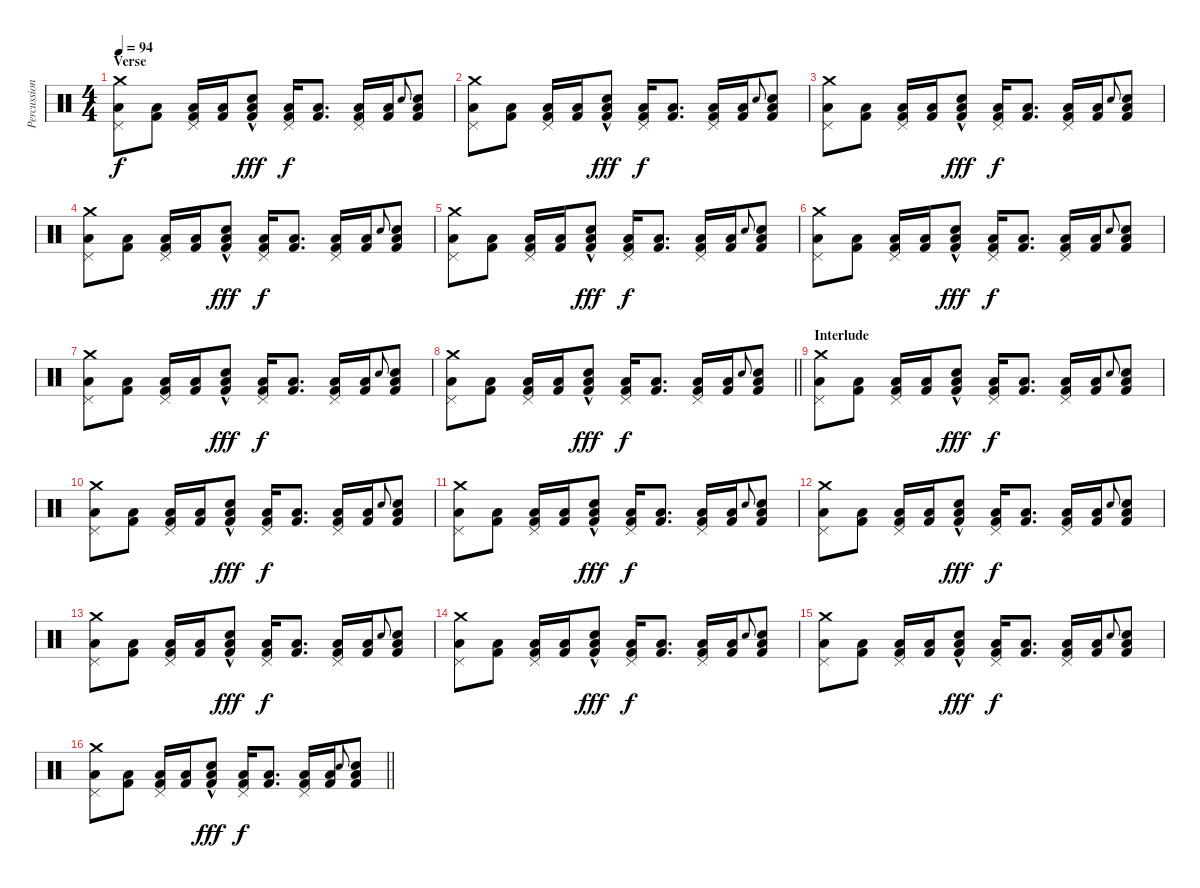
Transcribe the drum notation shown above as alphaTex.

\track ("Percussion" "Percussion") {instrument percussion}
\staff {score}
\articulation defaults
\ts (4 4)
\section ("" "Verse")
\tempo 94
\clef neutral
\ks c
("Crash medium (hit)" "Pedal Hi-Hat (hit)" "Low Floor Tom (hit)").8{dy f} ("Kick (hit) 2" "Low Floor Tom (hit)").8 ("Kick (hit) 2" "Pedal Hi-Hat (hit)" "Low Floor Tom (hit)").16 ("Kick (hit) 2" "Low Floor Tom (hit)").16 ("Snare (hit) 2"{hac} "Kick (hit) 2" "Low Floor Tom (hit)").8{dy fff} ("Kick (hit) 2" "Pedal Hi-Hat (hit)" "Low Floor Tom (hit)").16{dy f} ("Kick (hit) 2" "Low Floor Tom (hit)").8{d} ("Kick (hit) 2" "Pedal Hi-Hat (hit)" "Low Floor Tom (hit)").16 ("Kick (hit) 2" "Low Floor Tom (hit)").16 "Snare (hit) 2".8{gr onbeat} ("Snare (hit) 2" "Kick (hit) 2" "Low Floor Tom (hit)").8 |
("Crash medium (hit)" "Pedal Hi-Hat (hit)" "Low Floor Tom (hit)").8 ("Kick (hit) 2" "Low Floor Tom (hit)").8 ("Kick (hit) 2" "Pedal Hi-Hat (hit)" "Low Floor Tom (hit)").16 ("Kick (hit) 2" "Low Floor Tom (hit)").16 ("Snare (hit) 2"{hac} "Kick (hit) 2" "Low Floor Tom (hit)").8{dy fff} ("Kick (hit) 2" "Pedal Hi-Hat (hit)" "Low Floor Tom (hit)").16{dy f} ("Kick (hit) 2" "Low Floor Tom (hit)").8{d} ("Kick (hit) 2" "Pedal Hi-Hat (hit)" "Low Floor Tom (hit)").16 ("Kick (hit) 2" "Low Floor Tom (hit)").16 "Snare (hit) 2".8{gr onbeat} ("Snare (hit) 2" "Kick (hit) 2" "Low Floor Tom (hit)").8 |
("Crash medium (hit)" "Pedal Hi-Hat (hit)" "Low Floor Tom (hit)").8 ("Kick (hit) 2" "Low Floor Tom (hit)").8 ("Kick (hit) 2" "Pedal Hi-Hat (hit)" "Low Floor Tom (hit)").16 ("Kick (hit) 2" "Low Floor Tom (hit)").16 ("Snare (hit) 2"{hac} "Kick (hit) 2" "Low Floor Tom (hit)").8{dy fff} ("Kick (hit) 2" "Pedal Hi-Hat (hit)" "Low Floor Tom (hit)").16{dy f} ("Kick (hit) 2" "Low Floor Tom (hit)").8{d} ("Kick (hit) 2" "Pedal Hi-Hat (hit)" "Low Floor Tom (hit)").16 ("Kick (hit) 2" "Low Floor Tom (hit)").16 "Snare (hit) 2".8{gr onbeat} ("Snare (hit) 2" "Kick (hit) 2" "Low Floor Tom (hit)").8 |
("Crash medium (hit)" "Pedal Hi-Hat (hit)" "Low Floor Tom (hit)").8 ("Kick (hit) 2" "Low Floor Tom (hit)").8 ("Kick (hit) 2" "Pedal Hi-Hat (hit)" "Low Floor Tom (hit)").16 ("Kick (hit) 2" "Low Floor Tom (hit)").16 ("Snare (hit) 2"{hac} "Kick (hit) 2" "Low Floor Tom (hit)").8{dy fff} ("Kick (hit) 2" "Pedal Hi-Hat (hit)" "Low Floor Tom (hit)").16{dy f} ("Kick (hit) 2" "Low Floor Tom (hit)").8{d} ("Kick (hit) 2" "Pedal Hi-Hat (hit)" "Low Floor Tom (hit)").16 ("Kick (hit) 2" "Low Floor Tom (hit)").16 "Snare (hit) 2".8{gr onbeat} ("Snare (hit) 2" "Kick (hit) 2" "Low Floor Tom (hit)").8 |
("Crash medium (hit)" "Pedal Hi-Hat (hit)" "Low Floor Tom (hit)").8 ("Kick (hit) 2" "Low Floor Tom (hit)").8 ("Kick (hit) 2" "Pedal Hi-Hat (hit)" "Low Floor Tom (hit)").16 ("Kick (hit) 2" "Low Floor Tom (hit)").16 ("Snare (hit) 2"{hac} "Kick (hit) 2" "Low Floor Tom (hit)").8{dy fff} ("Kick (hit) 2" "Pedal Hi-Hat (hit)" "Low Floor Tom (hit)").16{dy f} ("Kick (hit) 2" "Low Floor Tom (hit)").8{d} ("Kick (hit) 2" "Pedal Hi-Hat (hit)" "Low Floor Tom (hit)").16 ("Kick (hit) 2" "Low Floor Tom (hit)").16 "Snare (hit) 2".8{gr onbeat} ("Snare (hit) 2" "Kick (hit) 2" "Low Floor Tom (hit)").8 |
("Crash medium (hit)" "Pedal Hi-Hat (hit)" "Low Floor Tom (hit)").8 ("Kick (hit) 2" "Low Floor Tom (hit)").8 ("Kick (hit) 2" "Pedal Hi-Hat (hit)" "Low Floor Tom (hit)").16 ("Kick (hit) 2" "Low Floor Tom (hit)").16 ("Snare (hit) 2"{hac} "Kick (hit) 2" "Low Floor Tom (hit)").8{dy fff} ("Kick (hit) 2" "Pedal Hi-Hat (hit)" "Low Floor Tom (hit)").16{dy f} ("Kick (hit) 2" "Low Floor Tom (hit)").8{d} ("Kick (hit) 2" "Pedal Hi-Hat (hit)" "Low Floor Tom (hit)").16 ("Kick (hit) 2" "Low Floor Tom (hit)").16 "Snare (hit) 2".8{gr onbeat} ("Snare (hit) 2" "Kick (hit) 2" "Low Floor Tom (hit)").8 |
("Crash medium (hit)" "Pedal Hi-Hat (hit)" "Low Floor Tom (hit)").8 ("Kick (hit) 2" "Low Floor Tom (hit)").8 ("Kick (hit) 2" "Pedal Hi-Hat (hit)" "Low Floor Tom (hit)").16 ("Kick (hit) 2" "Low Floor Tom (hit)").16 ("Snare (hit) 2"{hac} "Kick (hit) 2" "Low Floor Tom (hit)").8{dy fff} ("Kick (hit) 2" "Pedal Hi-Hat (hit)" "Low Floor Tom (hit)").16{dy f} ("Kick (hit) 2" "Low Floor Tom (hit)").8{d} ("Kick (hit) 2" "Pedal Hi-Hat (hit)" "Low Floor Tom (hit)").16 ("Kick (hit) 2" "Low Floor Tom (hit)").16 "Snare (hit) 2".8{gr onbeat} ("Snare (hit) 2" "Kick (hit) 2" "Low Floor Tom (hit)").8 |
\barLineRight lightlight
("Crash medium (hit)" "Pedal Hi-Hat (hit)" "Low Floor Tom (hit)").8 ("Kick (hit) 2" "Low Floor Tom (hit)").8 ("Kick (hit) 2" "Pedal Hi-Hat (hit)" "Low Floor Tom (hit)").16 ("Kick (hit) 2" "Low Floor Tom (hit)").16 ("Snare (hit) 2"{hac} "Kick (hit) 2" "Low Floor Tom (hit)").8{dy fff} ("Kick (hit) 2" "Pedal Hi-Hat (hit)" "Low Floor Tom (hit)").16{dy f} ("Kick (hit) 2" "Low Floor Tom (hit)").8{d} ("Kick (hit) 2" "Pedal Hi-Hat (hit)" "Low Floor Tom (hit)").16 ("Kick (hit) 2" "Low Floor Tom (hit)").16 "Snare (hit) 2".8{gr onbeat} ("Snare (hit) 2" "Kick (hit) 2" "Low Floor Tom (hit)").8 |
\section ("" "Interlude")
("Crash medium (hit)" "Pedal Hi-Hat (hit)" "Low Floor Tom (hit)").8 ("Kick (hit) 2" "Low Floor Tom (hit)").8 ("Kick (hit) 2" "Pedal Hi-Hat (hit)" "Low Floor Tom (hit)").16 ("Kick (hit) 2" "Low Floor Tom (hit)").16 ("Snare (hit) 2"{hac} "Kick (hit) 2" "Low Floor Tom (hit)").8{dy fff} ("Kick (hit) 2" "Pedal Hi-Hat (hit)" "Low Floor Tom (hit)").16{dy f} ("Kick (hit) 2" "Low Floor Tom (hit)").8{d} ("Kick (hit) 2" "Pedal Hi-Hat (hit)" "Low Floor Tom (hit)").16 ("Kick (hit) 2" "Low Floor Tom (hit)").16 "Snare (hit) 2".8{gr onbeat} ("Snare (hit) 2" "Kick (hit) 2" "Low Floor Tom (hit)").8 |
("Crash medium (hit)" "Pedal Hi-Hat (hit)" "Low Floor Tom (hit)").8 ("Kick (hit) 2" "Low Floor Tom (hit)").8 ("Kick (hit) 2" "Pedal Hi-Hat (hit)" "Low Floor Tom (hit)").16 ("Kick (hit) 2" "Low Floor Tom (hit)").16 ("Snare (hit) 2"{hac} "Kick (hit) 2" "Low Floor Tom (hit)").8{dy fff} ("Kick (hit) 2" "Pedal Hi-Hat (hit)" "Low Floor Tom (hit)").16{dy f} ("Kick (hit) 2" "Low Floor Tom (hit)").8{d} ("Kick (hit) 2" "Pedal Hi-Hat (hit)" "Low Floor Tom (hit)").16 ("Kick (hit) 2" "Low Floor Tom (hit)").16 "Snare (hit) 2".8{gr onbeat} ("Snare (hit) 2" "Kick (hit) 2" "Low Floor Tom (hit)").8 |
("Crash medium (hit)" "Pedal Hi-Hat (hit)" "Low Floor Tom (hit)").8 ("Kick (hit) 2" "Low Floor Tom (hit)").8 ("Kick (hit) 2" "Pedal Hi-Hat (hit)" "Low Floor Tom (hit)").16 ("Kick (hit) 2" "Low Floor Tom (hit)").16 ("Snare (hit) 2"{hac} "Kick (hit) 2" "Low Floor Tom (hit)").8{dy fff} ("Kick (hit) 2" "Pedal Hi-Hat (hit)" "Low Floor Tom (hit)").16{dy f} ("Kick (hit) 2" "Low Floor Tom (hit)").8{d} ("Kick (hit) 2" "Pedal Hi-Hat (hit)" "Low Floor Tom (hit)").16 ("Kick (hit) 2" "Low Floor Tom (hit)").16 "Snare (hit) 2".8{gr onbeat} ("Snare (hit) 2" "Kick (hit) 2" "Low Floor Tom (hit)").8 |
("Crash medium (hit)" "Pedal Hi-Hat (hit)" "Low Floor Tom (hit)").8 ("Kick (hit) 2" "Low Floor Tom (hit)").8 ("Kick (hit) 2" "Pedal Hi-Hat (hit)" "Low Floor Tom (hit)").16 ("Kick (hit) 2" "Low Floor Tom (hit)").16 ("Snare (hit) 2"{hac} "Kick (hit) 2" "Low Floor Tom (hit)").8{dy fff} ("Kick (hit) 2" "Pedal Hi-Hat (hit)" "Low Floor Tom (hit)").16{dy f} ("Kick (hit) 2" "Low Floor Tom (hit)").8{d} ("Kick (hit) 2" "Pedal Hi-Hat (hit)" "Low Floor Tom (hit)").16 ("Kick (hit) 2" "Low Floor Tom (hit)").16 "Snare (hit) 2".8{gr onbeat} ("Snare (hit) 2" "Kick (hit) 2" "Low Floor Tom (hit)").8 |
("Crash medium (hit)" "Pedal Hi-Hat (hit)" "Low Floor Tom (hit)").8 ("Kick (hit) 2" "Low Floor Tom (hit)").8 ("Kick (hit) 2" "Pedal Hi-Hat (hit)" "Low Floor Tom (hit)").16 ("Kick (hit) 2" "Low Floor Tom (hit)").16 ("Snare (hit) 2"{hac} "Kick (hit) 2" "Low Floor Tom (hit)").8{dy fff} ("Kick (hit) 2" "Pedal Hi-Hat (hit)" "Low Floor Tom (hit)").16{dy f} ("Kick (hit) 2" "Low Floor Tom (hit)").8{d} ("Kick (hit) 2" "Pedal Hi-Hat (hit)" "Low Floor Tom (hit)").16 ("Kick (hit) 2" "Low Floor Tom (hit)").16 "Snare (hit) 2".8{gr onbeat} ("Snare (hit) 2" "Kick (hit) 2" "Low Floor Tom (hit)").8 |
("Crash medium (hit)" "Pedal Hi-Hat (hit)" "Low Floor Tom (hit)").8 ("Kick (hit) 2" "Low Floor Tom (hit)").8 ("Kick (hit) 2" "Pedal Hi-Hat (hit)" "Low Floor Tom (hit)").16 ("Kick (hit) 2" "Low Floor Tom (hit)").16 ("Snare (hit) 2"{hac} "Kick (hit) 2" "Low Floor Tom (hit)").8{dy fff} ("Kick (hit) 2" "Pedal Hi-Hat (hit)" "Low Floor Tom (hit)").16{dy f} ("Kick (hit) 2" "Low Floor Tom (hit)").8{d} ("Kick (hit) 2" "Pedal Hi-Hat (hit)" "Low Floor Tom (hit)").16 ("Kick (hit) 2" "Low Floor Tom (hit)").16 "Snare (hit) 2".8{gr onbeat} ("Snare (hit) 2" "Kick (hit) 2" "Low Floor Tom (hit)").8 |
("Crash medium (hit)" "Pedal Hi-Hat (hit)" "Low Floor Tom (hit)").8 ("Kick (hit) 2" "Low Floor Tom (hit)").8 ("Kick (hit) 2" "Pedal Hi-Hat (hit)" "Low Floor Tom (hit)").16 ("Kick (hit) 2" "Low Floor Tom (hit)").16 ("Snare (hit) 2"{hac} "Kick (hit) 2" "Low Floor Tom (hit)").8{dy fff} ("Kick (hit) 2" "Pedal Hi-Hat (hit)" "Low Floor Tom (hit)").16{dy f} ("Kick (hit) 2" "Low Floor Tom (hit)").8{d} ("Kick (hit) 2" "Pedal Hi-Hat (hit)" "Low Floor Tom (hit)").16 ("Kick (hit) 2" "Low Floor Tom (hit)").16 "Snare (hit) 2".8{gr onbeat} ("Snare (hit) 2" "Kick (hit) 2" "Low Floor Tom (hit)").8 |
\barLineRight lightlight
("Crash medium (hit)" "Pedal Hi-Hat (hit)" "Low Floor Tom (hit)").8 ("Kick (hit) 2" "Low Floor Tom (hit)").8 ("Kick (hit) 2" "Pedal Hi-Hat (hit)" "Low Floor Tom (hit)").16 ("Kick (hit) 2" "Low Floor Tom (hit)").16 ("Snare (hit) 2"{hac} "Kick (hit) 2" "Low Floor Tom (hit)").8{dy fff} ("Kick (hit) 2" "Pedal Hi-Hat (hit)" "Low Floor Tom (hit)").16{dy f} ("Kick (hit) 2" "Low Floor Tom (hit)").8{d} ("Kick (hit) 2" "Pedal Hi-Hat (hit)" "Low Floor Tom (hit)").16 ("Kick (hit) 2" "Low Floor Tom (hit)").16 "Snare (hit) 2".8{gr onbeat} ("Snare (hit) 2" "Kick (hit) 2" "Low Floor Tom (hit)").8
